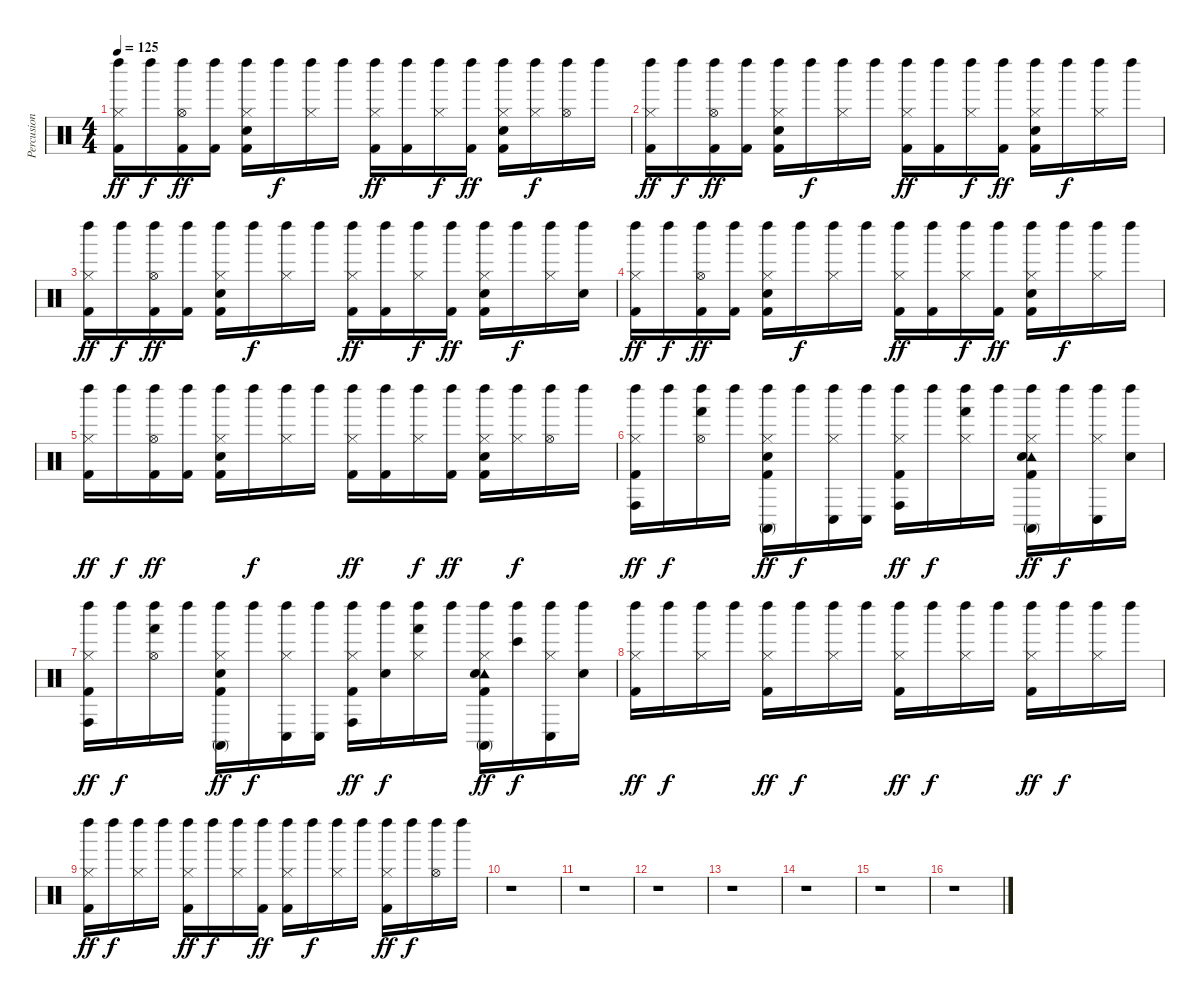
\track ("Percusion" "Percusion") {instrument percussion}
\staff {score}
\articulation defaults
\ts (4 4)
\tempo 125
\clef neutral
\ks c
("Left Maraca (hit)" "Hi-Hat (closed)" "Kick (hit) 2").16{dy ff} "Left Maraca (hit)".16{dy f} ("Left Maraca (hit)" "Hi-Hat (open)" "Kick (hit) 2").16{dy ff} ("Kick (hit) 2" "Left Maraca (hit)").16 ("Left Maraca (hit)" "Hi-Hat (closed)" "Kick (hit) 2" "Electric Snare (hit)").16 "Left Maraca (hit)".16{dy f} ("Left Maraca (hit)" "Hi-Hat (closed)").16 "Left Maraca (hit)".16 ("Left Maraca (hit)" "Hi-Hat (closed)" "Kick (hit) 2").16{dy ff} ("Kick (hit) 2" "Left Maraca (hit)").16 ("Left Maraca (hit)" "Hi-Hat (closed)").16{dy f} ("Left Maraca (hit)" "Kick (hit) 2").16{dy ff} ("Kick (hit) 2" "Electric Snare (hit)" "Left Maraca (hit)" "Hi-Hat (closed)").16 ("Left Maraca (hit)" "Hi-Hat (closed)").16{dy f} ("Left Maraca (hit)" "Hi-Hat (open)").16 "Left Maraca (hit)".16 |
("Left Maraca (hit)" "Hi-Hat (closed)" "Kick (hit) 2").16{dy ff} "Left Maraca (hit)".16{dy f} ("Left Maraca (hit)" "Hi-Hat (open)" "Kick (hit) 2").16{dy ff} ("Kick (hit) 2" "Left Maraca (hit)").16 ("Left Maraca (hit)" "Hi-Hat (closed)" "Kick (hit) 2" "Electric Snare (hit)").16 "Left Maraca (hit)".16{dy f} ("Left Maraca (hit)" "Hi-Hat (closed)").16 "Left Maraca (hit)".16 ("Left Maraca (hit)" "Hi-Hat (closed)" "Kick (hit) 2").16{dy ff} ("Kick (hit) 2" "Left Maraca (hit)").16 ("Left Maraca (hit)" "Hi-Hat (closed)").16{dy f} ("Left Maraca (hit)" "Kick (hit) 2").16{dy ff} ("Kick (hit) 2" "Electric Snare (hit)" "Left Maraca (hit)" "Hi-Hat (closed)").16 "Left Maraca (hit)".16{dy f} ("Left Maraca (hit)" "Hi-Hat (closed)").16 "Left Maraca (hit)".16 |
("Left Maraca (hit)" "Hi-Hat (closed)" "Kick (hit) 2").16{dy ff} "Left Maraca (hit)".16{dy f} ("Left Maraca (hit)" "Hi-Hat (open)" "Kick (hit) 2").16{dy ff} ("Kick (hit) 2" "Left Maraca (hit)").16 ("Left Maraca (hit)" "Hi-Hat (closed)" "Kick (hit) 2" "Electric Snare (hit)").16 "Left Maraca (hit)".16{dy f} ("Left Maraca (hit)" "Hi-Hat (closed)").16 "Left Maraca (hit)".16 ("Left Maraca (hit)" "Hi-Hat (closed)" "Kick (hit) 2").16{dy ff} ("Kick (hit) 2" "Left Maraca (hit)").16 ("Left Maraca (hit)" "Hi-Hat (closed)").16{dy f} ("Left Maraca (hit)" "Kick (hit) 2").16{dy ff} ("Kick (hit) 2" "Electric Snare (hit)" "Left Maraca (hit)" "Hi-Hat (closed)").16 "Left Maraca (hit)".16{dy f} ("Left Maraca (hit)" "Hi-Hat (closed)").16 ("Left Maraca (hit)" "Electric Snare (hit)").16 |
("Kick (hit) 2" "Left Maraca (hit)" "Hi-Hat (closed)").16{dy ff} "Left Maraca (hit)".16{dy f} ("Left Maraca (hit)" "Hi-Hat (open)" "Kick (hit) 2").16{dy ff} ("Kick (hit) 2" "Left Maraca (hit)").16 ("Left Maraca (hit)" "Hi-Hat (closed)" "Kick (hit) 2" "Electric Snare (hit)").16 "Left Maraca (hit)".16{dy f} ("Left Maraca (hit)" "Hi-Hat (closed)").16 "Left Maraca (hit)".16 ("Left Maraca (hit)" "Hi-Hat (closed)" "Kick (hit) 2").16{dy ff} ("Kick (hit) 2" "Left Maraca (hit)").16 ("Left Maraca (hit)" "Hi-Hat (closed)").16{dy f} ("Left Maraca (hit)" "Kick (hit) 2").16{dy ff} ("Kick (hit) 2" "Electric Snare (hit)" "Left Maraca (hit)" "Hi-Hat (closed)").16 "Left Maraca (hit)".16{dy f} ("Left Maraca (hit)" "Hi-Hat (closed)").16 "Left Maraca (hit)".16 |
("Left Maraca (hit)" "Hi-Hat (closed)" "Kick (hit) 2").16{dy ff} "Left Maraca (hit)".16{dy f} ("Left Maraca (hit)" "Hi-Hat (open)" "Kick (hit) 2").16{dy ff} ("Kick (hit) 2" "Left Maraca (hit)").16 ("Left Maraca (hit)" "Hi-Hat (closed)" "Kick (hit) 2" "Electric Snare (hit)").16 "Left Maraca (hit)".16{dy f} ("Left Maraca (hit)" "Hi-Hat (closed)").16 "Left Maraca (hit)".16 ("Left Maraca (hit)" "Hi-Hat (closed)" "Kick (hit) 2").16{dy ff} ("Kick (hit) 2" "Left Maraca (hit)").16 ("Left Maraca (hit)" "Hi-Hat (closed)").16{dy f} ("Left Maraca (hit)" "Kick (hit) 2").16{dy ff} ("Kick (hit) 2" "Electric Snare (hit)" "Left Maraca (hit)" "Hi-Hat (closed)").16 ("Left Maraca (hit)" "Hi-Hat (closed)").16{dy f} ("Left Maraca (hit)" "Hi-Hat (open)").16 "Left Maraca (hit)".16 |
("Left Maraca (hit)" "Hi-Hat (closed)" "Conga high (hit)" "Kick (hit) 2").16{dy ff} "Left Maraca (hit)".16{dy f} ("Left Maraca (hit)" "Hi-Hat (open)" "Hand (hit)").16 "Left Maraca (hit)".16 ("Left Maraca (hit)" "Hi-Hat (closed)" "Conga high (mute)" "Kick (hit) 2" "Electric Snare (hit)").16{dy ff} "Left Maraca (hit)".16{dy f} ("Left Maraca (hit)" "Hi-Hat (closed)" "Conga low (hit)").16 ("Conga low (hit)" "Left Maraca (hit)").16 ("Left Maraca (hit)" "Hi-Hat (closed)" "Conga high (hit)" "Kick (hit) 2").16{dy ff} "Left Maraca (hit)".16{dy f} ("Left Maraca (hit)" "Hi-Hat (closed)" "Hand (hit)").16 "Left Maraca (hit)".16 ("Left Maraca (hit)" "Hi-Hat (closed)" "Conga high (mute)" "Tambourine (hit)" "Kick (hit) 2" "Electric Snare (hit)").16{dy ff} "Left Maraca (hit)".16{dy f} ("Left Maraca (hit)" "Hi-Hat (closed)" "Conga low (hit)").16 ("Left Maraca (hit)" "Electric Snare (hit)").16 |
("Kick (hit) 2" "Left Maraca (hit)" "Hi-Hat (closed)" "Conga high (hit)").16{dy ff} "Left Maraca (hit)".16{dy f} ("Left Maraca (hit)" "Hi-Hat (open)" "Hand (hit)").16 "Left Maraca (hit)".16 ("Left Maraca (hit)" "Hi-Hat (closed)" "Conga high (mute)" "Kick (hit) 2" "Electric Snare (hit)").16{dy ff} "Left Maraca (hit)".16{dy f} ("Left Maraca (hit)" "Hi-Hat (closed)" "Conga low (hit)").16 ("Conga low (hit)" "Left Maraca (hit)").16 ("Left Maraca (hit)" "Hi-Hat (closed)" "Conga high (hit)" "Kick (hit) 2").16{dy ff} ("Electric Snare (hit)" "Left Maraca (hit)").16{dy f} ("Left Maraca (hit)" "Hi-Hat (closed)" "Hand (hit)").16 "Left Maraca (hit)".16 ("Left Maraca (hit)" "Hi-Hat (closed)" "Conga high (mute)" "Tambourine (hit)" "Electric Snare (hit)" "Kick (hit) 2").16{dy ff} ("Bongo High (hit)" "Left Maraca (hit)").16{dy f} ("Left Maraca (hit)" "Hi-Hat (closed)" "Conga low (hit)").16 ("Left Maraca (hit)" "Electric Snare (hit)").16 |
("Hi-Hat (closed)" "Left Maraca (hit)" "Kick (hit) 2").16{dy ff} "Left Maraca (hit)".16{dy f} ("Left Maraca (hit)" "Hi-Hat (closed)").16 "Left Maraca (hit)".16 ("Left Maraca (hit)" "Hi-Hat (closed)" "Kick (hit) 2").16{dy ff} "Left Maraca (hit)".16{dy f} ("Left Maraca (hit)" "Hi-Hat (closed)").16 "Left Maraca (hit)".16 ("Left Maraca (hit)" "Hi-Hat (closed)" "Kick (hit) 2").16{dy ff} "Left Maraca (hit)".16{dy f} ("Left Maraca (hit)" "Hi-Hat (closed)").16 "Left Maraca (hit)".16 ("Left Maraca (hit)" "Hi-Hat (closed)" "Kick (hit) 2").16{dy ff} "Left Maraca (hit)".16{dy f} ("Left Maraca (hit)" "Hi-Hat (closed)").16 "Left Maraca (hit)".16 |
("Left Maraca (hit)" "Hi-Hat (closed)" "Kick (hit) 2").16{dy ff} "Left Maraca (hit)".16{dy f} ("Left Maraca (hit)" "Hi-Hat (closed)").16 "Left Maraca (hit)".16 ("Left Maraca (hit)" "Hi-Hat (closed)" "Kick (hit) 2").16{dy ff} "Left Maraca (hit)".16{dy f} ("Left Maraca (hit)" "Hi-Hat (closed)").16 ("Left Maraca (hit)" "Kick (hit) 2").16{dy ff} ("Kick (hit) 2" "Left Maraca (hit)" "Hi-Hat (closed)").16 "Left Maraca (hit)".16{dy f} ("Left Maraca (hit)" "Hi-Hat (closed)").16 "Left Maraca (hit)".16 ("Left Maraca (hit)" "Hi-Hat (closed)" "Kick (hit) 2").16{dy ff} "Left Maraca (hit)".16{dy f} ("Left Maraca (hit)" "Hi-Hat (open)").16 "Left Maraca (hit)".16 |
r.1 |
r.1 |
r.1 |
r.1 |
r.1 |
r.1 |
r.1
